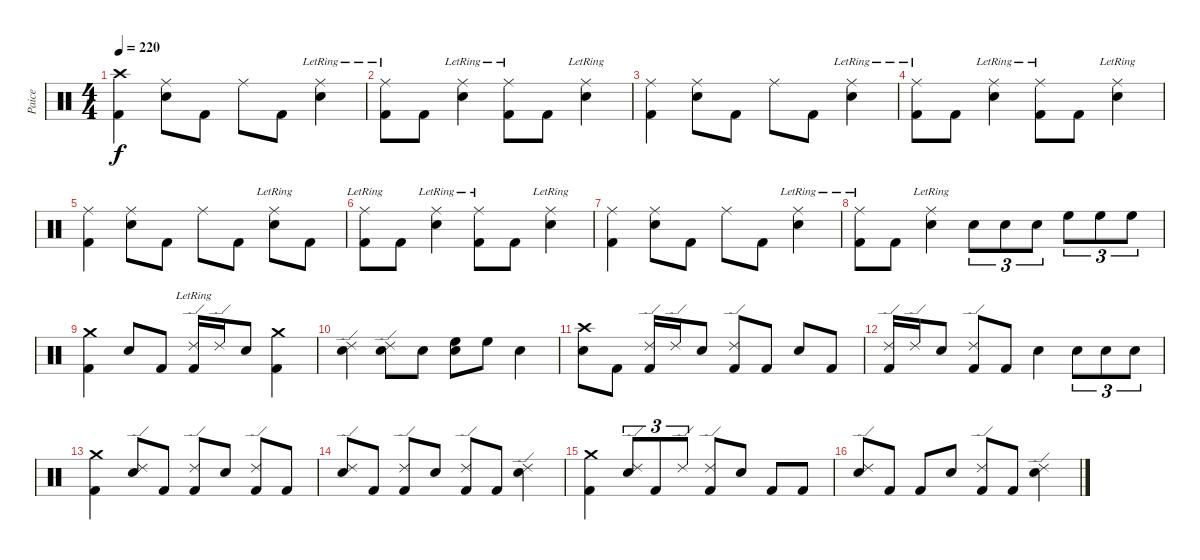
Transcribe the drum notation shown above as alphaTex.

\track ("Paice" "Paice") {instrument percussion}
\staff {score}
\articulation defaults
\ts (4 4)
\tempo 220
\clef neutral
\ks c
("Crash high (hit)" "Kick (hit) 2").4{dy f} ("Ride (middle)" "Snare (hit) 2").8 "Kick (hit) 2".8 "Ride (middle)".8 "Kick (hit) 2".8 ("Ride (middle)"{lr} "Snare (hit) 2").4 |
("Ride (middle)"{lr} "Kick (hit) 2").8 "Kick (hit) 2".8 ("Ride (middle)"{lr} "Snare (hit) 2").4 ("Ride (middle)"{lr} "Kick (hit) 2").8 "Kick (hit) 2".8 ("Ride (middle)"{lr} "Snare (hit) 2").4 |
("Ride (middle)" "Kick (hit) 2").4 ("Ride (middle)" "Snare (hit) 2").8 "Kick (hit) 2".8 "Ride (middle)".8 "Kick (hit) 2".8 ("Ride (middle)"{lr} "Snare (hit) 2").4 |
("Ride (middle)"{lr} "Kick (hit) 2").8 "Kick (hit) 2".8 ("Ride (middle)"{lr} "Snare (hit) 2").4 ("Ride (middle)"{lr} "Kick (hit) 2").8 "Kick (hit) 2".8 ("Ride (middle)"{lr} "Snare (hit) 2").4 |
("Ride (middle)" "Kick (hit) 2").4 ("Ride (middle)" "Snare (hit) 2").8 "Kick (hit) 2".8 "Ride (middle)".8 "Kick (hit) 2".8 ("Ride (middle)"{lr} "Snare (hit) 2").8 "Kick (hit) 2".8 |
("Ride (middle)"{lr} "Kick (hit) 2").8 "Kick (hit) 2".8 ("Ride (middle)"{lr} "Snare (hit) 2").4 ("Ride (middle)"{lr} "Kick (hit) 2").8 "Kick (hit) 2".8 ("Ride (middle)"{lr} "Snare (hit) 2").4 |
("Ride (middle)" "Kick (hit) 2").4 ("Ride (middle)" "Snare (hit) 2").8 "Kick (hit) 2".8 "Ride (middle)".8 "Kick (hit) 2".8 ("Ride (middle)"{lr} "Snare (hit) 2").4 |
("Ride (middle)"{lr} "Kick (hit) 2").8 "Kick (hit) 2".8 ("Ride (middle)"{lr} "Snare (hit) 2").4 "Snare (hit) 2".8{tu (3 2)} "Snare (hit) 2".8{tu (3 2)} "Snare (hit) 2".8{tu (3 2)} "High Floor Tom (hit)".8{tu (3 2)} "High Floor Tom (hit)".8{tu (3 2)} "High Floor Tom (hit)".8{tu (3 2)} |
("Crash medium (hit)" "Kick (hit) 2").4 "Snare (hit) 2".8 "Kick (hit) 2".8 ("Ride (edge) 2" "Kick (hit) 2"{lr}).16 "Ride (edge) 2".16 "Snare (hit) 2".8 ("Crash medium (hit)" "Kick (hit) 2").4 |
("Ride (edge) 2" "Snare (hit) 2").4 ("Ride (edge) 2" "Snare (hit) 2").8 "Snare (hit) 2".8 ("Snare (hit) 2" "High Floor Tom (hit)").8 "High Floor Tom (hit)".8 "Snare (hit) 2".4 |
("Crash high (hit)" "Snare (hit) 2").8 "Kick (hit) 2".8 ("Ride (edge) 2" "Kick (hit) 2").16 "Ride (edge) 2".16 "Snare (hit) 2".8 ("Ride (edge) 2" "Kick (hit) 2").8 "Kick (hit) 2".8 "Snare (hit) 2".8 "Kick (hit) 2".8 |
("Ride (edge) 2" "Kick (hit) 2").16 "Ride (edge) 2".16 "Snare (hit) 2".8 ("Ride (edge) 2" "Kick (hit) 2").8 "Kick (hit) 2".8 "Snare (hit) 2".4 "Snare (hit) 2".8{tu (3 2)} "Snare (hit) 2".8{tu (3 2)} "Snare (hit) 2".8{tu (3 2)} |
("Crash medium (hit)" "Kick (hit) 2").4 ("Ride (edge) 2" "Snare (hit) 2").8 "Kick (hit) 2".8 ("Ride (edge) 2" "Kick (hit) 2").8 "Snare (hit) 2".8 ("Ride (edge) 2" "Kick (hit) 2").8 "Kick (hit) 2".8 |
("Ride (edge) 2" "Snare (hit) 2").8 "Kick (hit) 2".8 ("Ride (edge) 2" "Kick (hit) 2").8 "Snare (hit) 2".8 ("Ride (edge) 2" "Kick (hit) 2").8 "Kick (hit) 2".8 ("Ride (edge) 2" "Snare (hit) 2").4 |
("Crash medium (hit)" "Kick (hit) 2").4 ("Ride (edge) 2" "Snare (hit) 2").8{tu (3 2)} "Kick (hit) 2".8{tu (3 2)} "Ride (edge) 2".8{tu (3 2)} ("Ride (edge) 2" "Kick (hit) 2").8 "Snare (hit) 2".8 "Kick (hit) 2".8 "Kick (hit) 2".8 |
("Ride (edge) 2" "Snare (hit) 2").8 "Kick (hit) 2".8 "Kick (hit) 2".8 "Snare (hit) 2".8 ("Ride (edge) 2" "Kick (hit) 2").8 "Kick (hit) 2".8 ("Ride (edge) 2" "Snare (hit) 2").4
